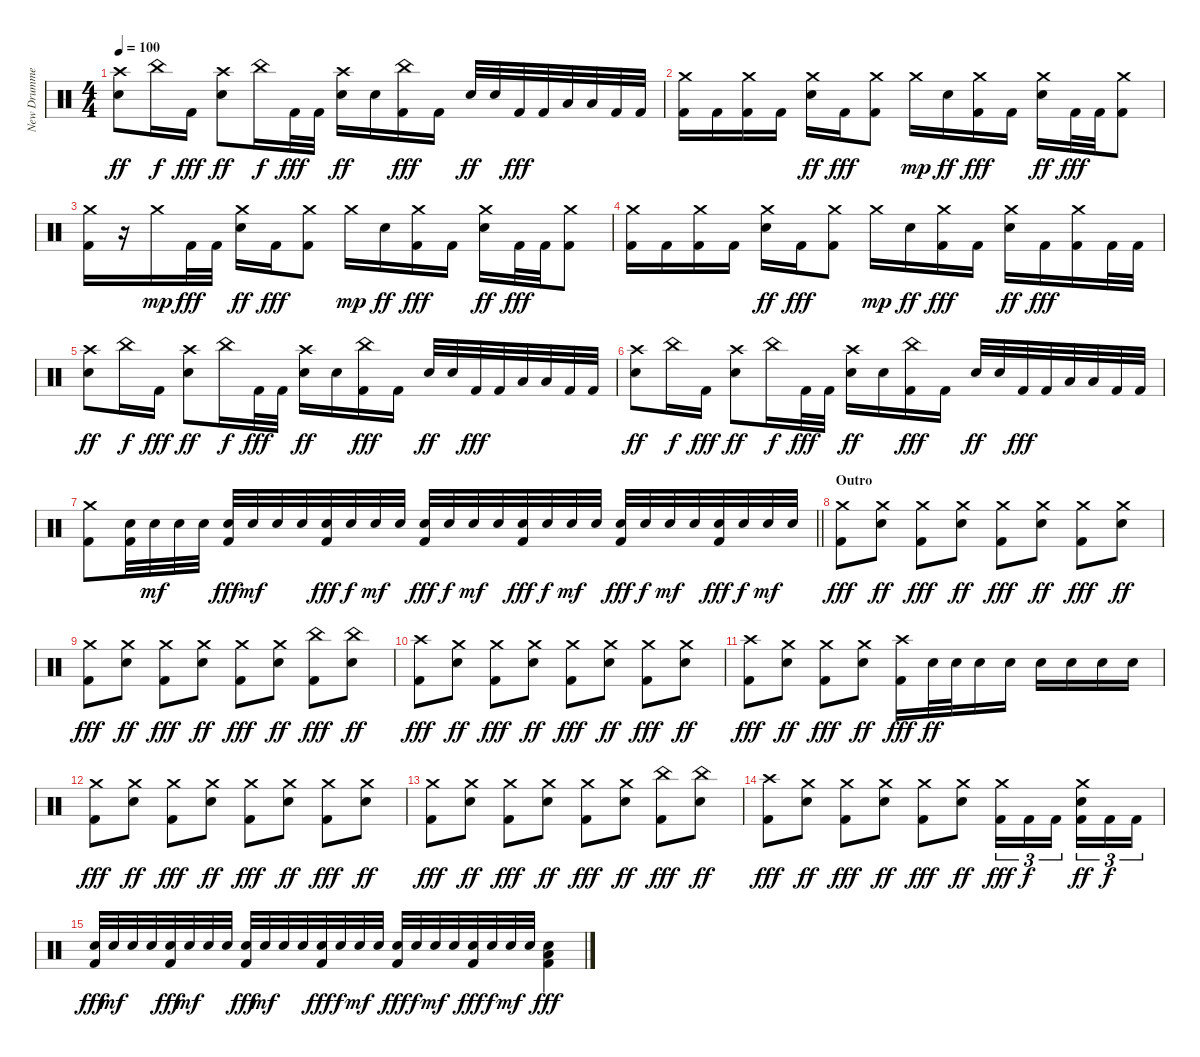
\track ("New Drummer" "New Drumme") {instrument percussion}
\staff {score}
\articulation defaults
\ts (4 4)
\tempo 100
\clef neutral
\ks c
("Crash high (hit)" "Electric Snare (hit)").8{dy ff} "China (hit)".16{dy f} "Kick (hit) 2".16{dy fff} ("Crash high (hit)" "Electric Snare (hit)").8{dy ff} "China (hit)".16{dy f} "Kick (hit) 2".32{dy fff} "Kick (hit) 2".32 ("Crash high (hit)" "Electric Snare (hit)").16{dy ff} "Electric Snare (hit)".16 ("China (hit)" "Kick (hit) 2").16{dy fff} "Kick (hit) 2".16 "Electric Snare (hit)".32{dy ff} "Electric Snare (hit)".32 "Kick (hit) 2".32{dy fff} "Kick (hit) 2".32 "Low Tom (hit)".32 "Low Tom (hit)".32 "Kick (hit) 2".32 "Kick (hit) 2".32 |
("Crash medium (hit)" "Kick (hit) 2").16 "Kick (hit) 2".16 ("Crash medium (hit)" "Kick (hit) 2").16 "Kick (hit) 2".16 ("Crash medium (hit)" "Electric Snare (hit)").16{dy ff} "Kick (hit) 2".16{dy fff} ("Crash medium (hit)" "Kick (hit) 2").8 "Crash medium (hit)".16{dy mp} "Electric Snare (hit)".16{dy ff} ("Crash medium (hit)" "Kick (hit) 2").16{dy fff} "Kick (hit) 2".16 ("Crash medium (hit)" "Electric Snare (hit)").16{dy ff} "Kick (hit) 2".32{dy fff} "Kick (hit) 2".32 ("Crash medium (hit)" "Kick (hit) 2").8 |
("Crash medium (hit)" "Kick (hit) 2").16 r.16 "Crash medium (hit)".16{dy mp} "Kick (hit) 2".32{dy fff} "Kick (hit) 2".32 ("Crash medium (hit)" "Electric Snare (hit)").16{dy ff} "Kick (hit) 2".16{dy fff} ("Crash medium (hit)" "Kick (hit) 2").8 "Crash medium (hit)".16{dy mp} "Electric Snare (hit)".16{dy ff} ("Crash medium (hit)" "Kick (hit) 2").16{dy fff} "Kick (hit) 2".16 ("Crash medium (hit)" "Electric Snare (hit)").16{dy ff} "Kick (hit) 2".32{dy fff} "Kick (hit) 2".32 ("Crash medium (hit)" "Kick (hit) 2").8 |
("Crash medium (hit)" "Kick (hit) 2").16 "Kick (hit) 2".16 ("Crash medium (hit)" "Kick (hit) 2").16 "Kick (hit) 2".16 ("Crash medium (hit)" "Electric Snare (hit)").16{dy ff} "Kick (hit) 2".16{dy fff} ("Crash medium (hit)" "Kick (hit) 2").8 "Crash medium (hit)".16{dy mp} "Electric Snare (hit)".16{dy ff} ("Crash medium (hit)" "Kick (hit) 2").16{dy fff} "Kick (hit) 2".16 ("Crash medium (hit)" "Electric Snare (hit)").16{dy ff} "Kick (hit) 2".16{dy fff} ("Crash medium (hit)" "Kick (hit) 2").16 "Kick (hit) 2".32 "Kick (hit) 2".32 |
("Crash high (hit)" "Electric Snare (hit)").8{dy ff} "China (hit)".16{dy f} "Kick (hit) 2".16{dy fff} ("Crash high (hit)" "Electric Snare (hit)").8{dy ff} "China (hit)".16{dy f} "Kick (hit) 2".32{dy fff} "Kick (hit) 2".32 ("Crash high (hit)" "Electric Snare (hit)").16{dy ff} "Electric Snare (hit)".16 ("China (hit)" "Kick (hit) 2").16{dy fff} "Kick (hit) 2".16 "Electric Snare (hit)".32{dy ff} "Electric Snare (hit)".32 "Kick (hit) 2".32{dy fff} "Kick (hit) 2".32 "Low Tom (hit)".32 "Low Tom (hit)".32 "Kick (hit) 2".32 "Kick (hit) 2".32 |
("Crash high (hit)" "Electric Snare (hit)").8{dy ff} "China (hit)".16{dy f} "Kick (hit) 2".16{dy fff} ("Crash high (hit)" "Electric Snare (hit)").8{dy ff} "China (hit)".16{dy f} "Kick (hit) 2".32{dy fff} "Kick (hit) 2".32 ("Crash high (hit)" "Electric Snare (hit)").16{dy ff} "Electric Snare (hit)".16 ("China (hit)" "Kick (hit) 2").16{dy fff} "Kick (hit) 2".16 "Electric Snare (hit)".32{dy ff} "Electric Snare (hit)".32 "Kick (hit) 2".32{dy fff} "Kick (hit) 2".32 "Low Tom (hit)".32 "Low Tom (hit)".32 "Kick (hit) 2".32 "Kick (hit) 2".32 |
\barLineRight lightlight
("Crash medium (hit)" "Kick (hit) 2").8 ("Electric Snare (hit)" "Kick (hit) 2").32 "Electric Snare (hit)".32{dy mf} "Electric Snare (hit)".32 "Electric Snare (hit)".32 ("Electric Snare (hit)" "Kick (hit) 2").32{dy fff} "Electric Snare (hit)".32{dy mf} "Electric Snare (hit)".32 "Electric Snare (hit)".32 ("Electric Snare (hit)" "Kick (hit) 2").32{dy fff} "Electric Snare (hit)".32{dy f} "Electric Snare (hit)".32{dy mf} "Electric Snare (hit)".32 ("Electric Snare (hit)" "Kick (hit) 2").32{dy fff} "Electric Snare (hit)".32{dy f} "Electric Snare (hit)".32{dy mf} "Electric Snare (hit)".32 ("Electric Snare (hit)" "Kick (hit) 2").32{dy fff} "Electric Snare (hit)".32{dy f} "Electric Snare (hit)".32{dy mf} "Electric Snare (hit)".32 ("Electric Snare (hit)" "Kick (hit) 2").32{dy fff} "Electric Snare (hit)".32{dy f} "Electric Snare (hit)".32{dy mf} "Electric Snare (hit)".32 ("Electric Snare (hit)" "Kick (hit) 2").32{dy fff} "Electric Snare (hit)".32{dy f} "Electric Snare (hit)".32{dy mf} "Electric Snare (hit)".32 |
\section ("" "Outro")
("Crash medium (hit)" "Kick (hit) 2").8{dy fff} ("Crash medium (hit)" "Electric Snare (hit)").8{dy ff} ("Crash medium (hit)" "Kick (hit) 2").8{dy fff} ("Crash medium (hit)" "Electric Snare (hit)").8{dy ff} ("Crash medium (hit)" "Kick (hit) 2").8{dy fff} ("Crash medium (hit)" "Electric Snare (hit)").8{dy ff} ("Crash medium (hit)" "Kick (hit) 2").8{dy fff} ("Crash medium (hit)" "Electric Snare (hit)").8{dy ff} |
("Crash medium (hit)" "Kick (hit) 2").8{dy fff} ("Crash medium (hit)" "Electric Snare (hit)").8{dy ff} ("Crash medium (hit)" "Kick (hit) 2").8{dy fff} ("Crash medium (hit)" "Electric Snare (hit)").8{dy ff} ("Crash medium (hit)" "Kick (hit) 2").8{dy fff} ("Crash medium (hit)" "Electric Snare (hit)").8{dy ff} ("China (hit)" "Kick (hit) 2").8{dy fff} ("China (hit)" "Electric Snare (hit)").8{dy ff} |
("Crash high (hit)" "Kick (hit) 2").8{dy fff} ("Crash medium (hit)" "Electric Snare (hit)").8{dy ff} ("Crash medium (hit)" "Kick (hit) 2").8{dy fff} ("Crash medium (hit)" "Electric Snare (hit)").8{dy ff} ("Crash medium (hit)" "Kick (hit) 2").8{dy fff} ("Crash medium (hit)" "Electric Snare (hit)").8{dy ff} ("Crash medium (hit)" "Kick (hit) 2").8{dy fff} ("Crash medium (hit)" "Electric Snare (hit)").8{dy ff} |
("Crash high (hit)" "Kick (hit) 2").8{dy fff} ("Crash medium (hit)" "Electric Snare (hit)").8{dy ff} ("Crash medium (hit)" "Kick (hit) 2").8{dy fff} ("Crash medium (hit)" "Electric Snare (hit)").8{dy ff} ("Crash high (hit)" "Kick (hit) 2").16{dy fff} "Electric Snare (hit)".32{dy ff} "Electric Snare (hit)".32 "Electric Snare (hit)".16 "Electric Snare (hit)".16 "Electric Snare (hit)".16 "Electric Snare (hit)".16 "Electric Snare (hit)".16 "Electric Snare (hit)".16 |
("Crash medium (hit)" "Kick (hit) 2").8{dy fff} ("Crash medium (hit)" "Electric Snare (hit)").8{dy ff} ("Crash medium (hit)" "Kick (hit) 2").8{dy fff} ("Crash medium (hit)" "Electric Snare (hit)").8{dy ff} ("Crash medium (hit)" "Kick (hit) 2").8{dy fff} ("Crash medium (hit)" "Electric Snare (hit)").8{dy ff} ("Crash medium (hit)" "Kick (hit) 2").8{dy fff} ("Crash medium (hit)" "Electric Snare (hit)").8{dy ff} |
("Crash medium (hit)" "Kick (hit) 2").8{dy fff} ("Crash medium (hit)" "Electric Snare (hit)").8{dy ff} ("Crash medium (hit)" "Kick (hit) 2").8{dy fff} ("Crash medium (hit)" "Electric Snare (hit)").8{dy ff} ("Crash medium (hit)" "Kick (hit) 2").8{dy fff} ("Crash medium (hit)" "Electric Snare (hit)").8{dy ff} ("China (hit)" "Kick (hit) 2").8{dy fff} ("China (hit)" "Electric Snare (hit)").8{dy ff} |
("Crash high (hit)" "Kick (hit) 2").8{dy fff} ("Crash medium (hit)" "Electric Snare (hit)").8{dy ff} ("Crash medium (hit)" "Kick (hit) 2").8{dy fff} ("Crash medium (hit)" "Electric Snare (hit)").8{dy ff} ("Crash medium (hit)" "Kick (hit) 2").8{dy fff} ("Crash medium (hit)" "Electric Snare (hit)").8{dy ff} ("Crash medium (hit)" "Kick (hit) 2").16{tu (3 2) dy fff} "Kick (hit) 2".16{tu (3 2) dy f} "Kick (hit) 2".16{tu (3 2) beam splitsecondary} ("Crash medium (hit)" "Electric Snare (hit)" "Kick (hit) 2").16{tu (3 2) dy ff} "Kick (hit) 2".16{tu (3 2) dy f} "Kick (hit) 2".16{tu (3 2)} |
("Electric Snare (hit)" "Kick (hit) 2").32{dy fff} "Electric Snare (hit)".32{dy mf} "Electric Snare (hit)".32 "Electric Snare (hit)".32 ("Electric Snare (hit)" "Kick (hit) 2").32{dy fff} "Electric Snare (hit)".32{dy mf} "Electric Snare (hit)".32 "Electric Snare (hit)".32 ("Electric Snare (hit)" "Kick (hit) 2").32{dy fff} "Electric Snare (hit)".32{dy mf} "Electric Snare (hit)".32 "Electric Snare (hit)".32 ("Electric Snare (hit)" "Kick (hit) 2").32{dy fff} "Electric Snare (hit)".32{dy f} "Electric Snare (hit)".32{dy mf} "Electric Snare (hit)".32 ("Electric Snare (hit)" "Kick (hit) 2").32{dy fff} "Electric Snare (hit)".32{dy f} "Electric Snare (hit)".32{dy mf} "Electric Snare (hit)".32 ("Electric Snare (hit)" "Kick (hit) 2").32{dy fff} "Electric Snare (hit)".32{dy f} "Electric Snare (hit)".32{dy mf} "Electric Snare (hit)".32 ("Electric Snare (hit)" "Low Floor Tom (hit)" "Kick (hit) 2").4{dy fff}
